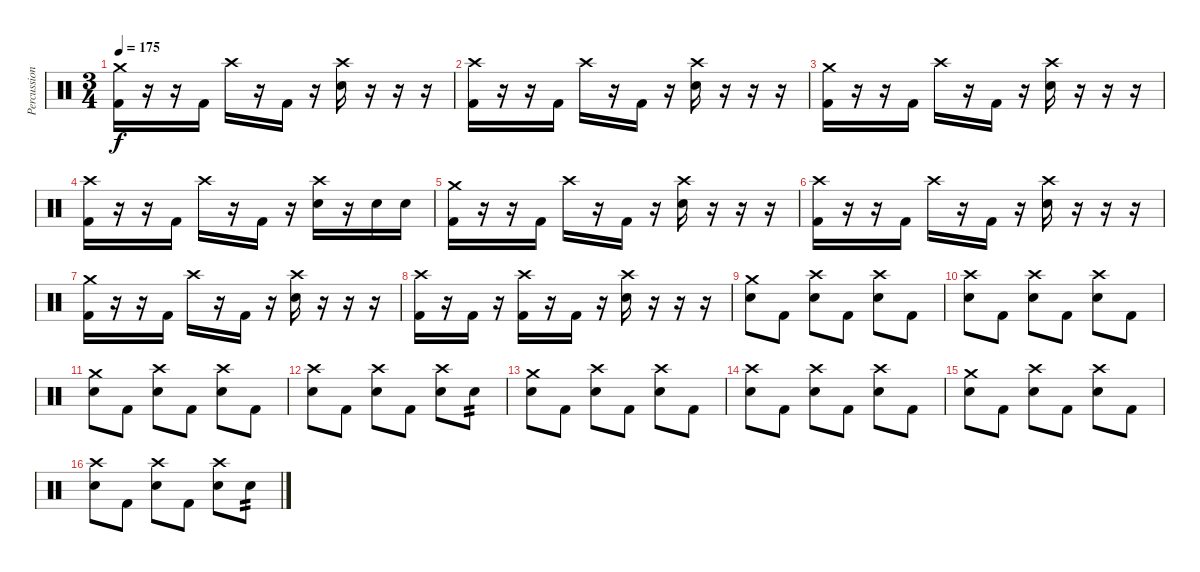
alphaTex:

\track ("Percussion" "Percussion") {instrument percussion}
\staff {score}
\articulation defaults
\ts (3 4)
\tempo 175
\clef neutral
\ks c
("Crash medium (hit)" "Kick (hit) 2").16{dy f} r.16 r.16 "Kick (hit) 2".16 "Crash high (hit)".16 r.16 "Kick (hit) 2".16 r.16 ("Crash high (hit)" "Electric Snare (hit)").16 r.16 r.16 r.16 |
("Crash high (hit)" "Kick (hit) 2").16 r.16 r.16 "Kick (hit) 2".16 "Crash high (hit)".16 r.16 "Kick (hit) 2".16 r.16 ("Crash high (hit)" "Electric Snare (hit)").16 r.16 r.16 r.16 |
("Crash medium (hit)" "Kick (hit) 2").16 r.16 r.16 "Kick (hit) 2".16 "Crash high (hit)".16 r.16 "Kick (hit) 2".16 r.16 ("Crash high (hit)" "Electric Snare (hit)").16 r.16 r.16 r.16 |
("Crash high (hit)" "Kick (hit) 2").16 r.16 r.16 "Kick (hit) 2".16 "Crash high (hit)".16 r.16 "Kick (hit) 2".16 r.16 ("Crash high (hit)" "Electric Snare (hit)").16 r.16 "Electric Snare (hit)".16 "Electric Snare (hit)".16 |
("Crash medium (hit)" "Kick (hit) 2").16 r.16 r.16 "Kick (hit) 2".16 "Crash high (hit)".16 r.16 "Kick (hit) 2".16 r.16 ("Crash high (hit)" "Electric Snare (hit)").16 r.16 r.16 r.16 |
("Crash high (hit)" "Kick (hit) 2").16 r.16 r.16 "Kick (hit) 2".16 "Crash high (hit)".16 r.16 "Kick (hit) 2".16 r.16 ("Crash high (hit)" "Electric Snare (hit)").16 r.16 r.16 r.16 |
("Crash medium (hit)" "Kick (hit) 2").16 r.16 r.16 "Kick (hit) 2".16 "Crash high (hit)".16 r.16 "Kick (hit) 2".16 r.16 ("Crash high (hit)" "Electric Snare (hit)").16 r.16 r.16 r.16 |
("Crash high (hit)" "Kick (hit) 2").16 r.16 "Kick (hit) 2".16 r.16 ("Crash high (hit)" "Kick (hit) 2").16 r.16 "Kick (hit) 2".16 r.16 ("Crash high (hit)" "Electric Snare (hit)").16 r.16 r.16 r.16 |
("Crash medium (hit)" "Electric Snare (hit)").8 "Kick (hit) 2".8 ("Crash high (hit)" "Electric Snare (hit)").8 "Kick (hit) 2".8 ("Crash high (hit)" "Electric Snare (hit)").8 "Kick (hit) 2".8 |
("Crash high (hit)" "Electric Snare (hit)").8 "Kick (hit) 2".8 ("Crash high (hit)" "Electric Snare (hit)").8 "Kick (hit) 2".8 ("Crash high (hit)" "Electric Snare (hit)").8 "Kick (hit) 2".8 |
("Crash medium (hit)" "Electric Snare (hit)").8 "Kick (hit) 2".8 ("Crash high (hit)" "Electric Snare (hit)").8 "Kick (hit) 2".8 ("Crash high (hit)" "Electric Snare (hit)").8 "Kick (hit) 2".8 |
("Crash high (hit)" "Electric Snare (hit)").8 "Kick (hit) 2".8 ("Crash high (hit)" "Electric Snare (hit)").8 "Kick (hit) 2".8 ("Crash high (hit)" "Electric Snare (hit)").8 "Electric Snare (hit)".8{tp 2} |
("Crash medium (hit)" "Electric Snare (hit)").8 "Kick (hit) 2".8 ("Crash high (hit)" "Electric Snare (hit)").8 "Kick (hit) 2".8 ("Crash high (hit)" "Electric Snare (hit)").8 "Kick (hit) 2".8 |
("Crash high (hit)" "Electric Snare (hit)").8 "Kick (hit) 2".8 ("Crash high (hit)" "Electric Snare (hit)").8 "Kick (hit) 2".8 ("Crash high (hit)" "Electric Snare (hit)").8 "Kick (hit) 2".8 |
("Crash medium (hit)" "Electric Snare (hit)").8 "Kick (hit) 2".8 ("Crash high (hit)" "Electric Snare (hit)").8 "Kick (hit) 2".8 ("Crash high (hit)" "Electric Snare (hit)").8 "Kick (hit) 2".8 |
("Crash high (hit)" "Electric Snare (hit)").8 "Kick (hit) 2".8 ("Crash high (hit)" "Electric Snare (hit)").8 "Kick (hit) 2".8 ("Crash high (hit)" "Electric Snare (hit)").8 "Electric Snare (hit)".8{tp 2}
